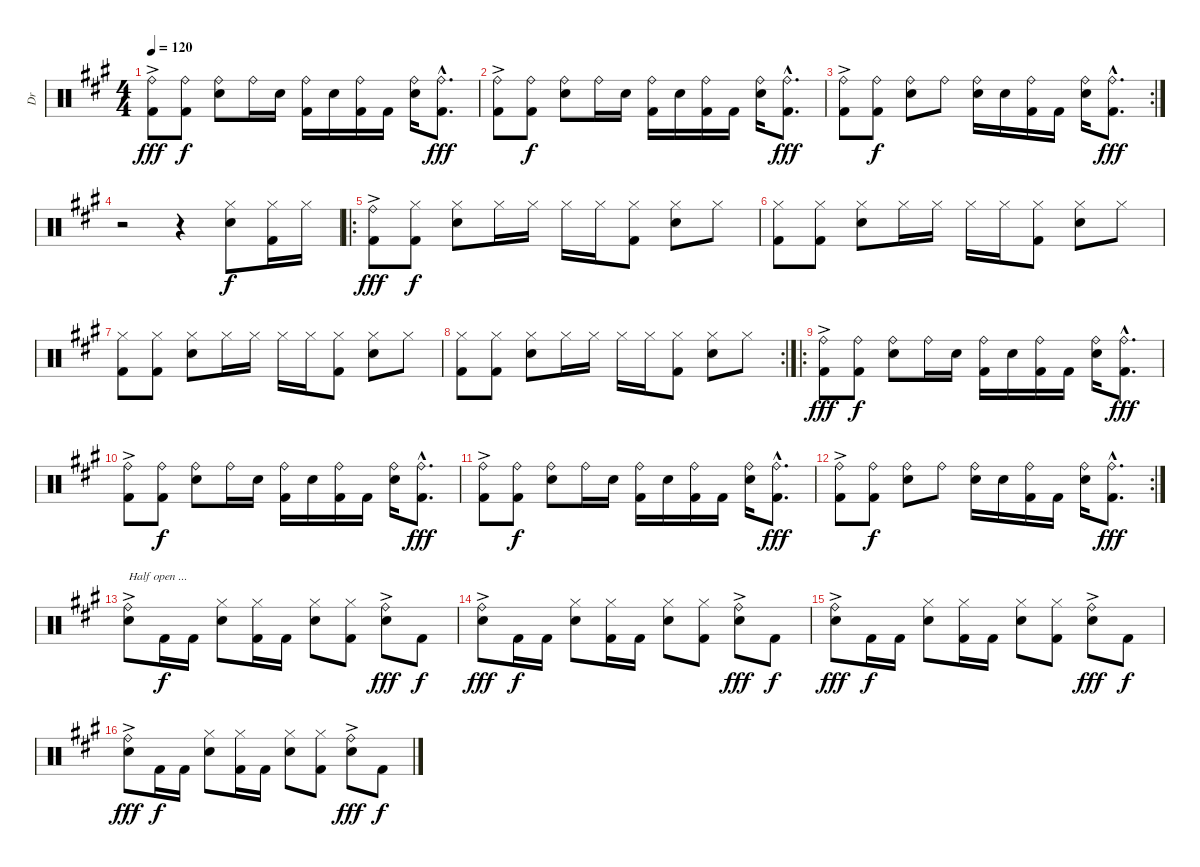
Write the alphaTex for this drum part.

\track ("Dr" "Dr") {instrument percussion}
\staff {score}
\articulation defaults
\ts (4 4)
\tempo 120
\clef neutral
\ks a
("Ride (bell)"{ac} "Kick (hit) 2"{ac}).8{dy fff} ("Ride (bell)" "Kick (hit) 2").8{dy f} ("Ride (bell)" "Electric Snare (hit)").8 "Ride (bell)".16 "Electric Snare (hit)".16 ("Ride (bell)" "Kick (hit) 2").16 "Electric Snare (hit)".16 ("Ride (bell)" "Kick (hit) 2").16 "Kick (hit) 2".16 ("Ride (bell)" "Electric Snare (hit)").16 ("Ride (bell)"{hac} "Kick (hit) 2"{hac}).8{d dy fff} |
("Ride (bell)"{ac} "Kick (hit) 2"{ac}).8 ("Ride (bell)" "Kick (hit) 2").8{dy f} ("Ride (bell)" "Electric Snare (hit)").8 "Ride (bell)".16 "Electric Snare (hit)".16 ("Ride (bell)" "Kick (hit) 2").16 "Electric Snare (hit)".16 ("Ride (bell)" "Kick (hit) 2").16 "Kick (hit) 2".16 ("Ride (bell)" "Electric Snare (hit)").16 ("Ride (bell)"{hac} "Kick (hit) 2"{hac}).8{d dy fff} |
\rc 2
("Ride (bell)"{ac} "Kick (hit) 2"{ac}).8 ("Ride (bell)" "Kick (hit) 2").8{dy f} ("Ride (bell)" "Electric Snare (hit)").8 "Ride (bell)".8 ("Ride (bell)" "Electric Snare (hit)").16 "Electric Snare (hit)".16 ("Ride (bell)" "Kick (hit) 2").16 "Kick (hit) 2".16 ("Ride (bell)" "Electric Snare (hit)").16 ("Ride (bell)"{hac} "Kick (hit) 2"{hac}).8{d dy fff} |
r.2 r.4 ("Hi-Hat (closed)" "Electric Snare (hit)").8{dy f} ("Hi-Hat (closed)" "Kick (hit) 2").16 "Hi-Hat (closed)".16 |
\ro
("Ride (bell)"{ac} "Kick (hit) 2"{ac}).8{dy fff} ("Hi-Hat (closed)" "Kick (hit) 2").8{dy f} ("Hi-Hat (closed)" "Electric Snare (hit)").8 "Hi-Hat (closed)".16 "Hi-Hat (closed)".16 "Hi-Hat (closed)".16 "Hi-Hat (closed)".16 ("Hi-Hat (closed)" "Kick (hit) 2").8 ("Hi-Hat (closed)" "Electric Snare (hit)").8 "Hi-Hat (closed)".8 |
("Hi-Hat (closed)" "Kick (hit) 2").8 ("Hi-Hat (closed)" "Kick (hit) 2").8 ("Hi-Hat (closed)" "Electric Snare (hit)").8 "Hi-Hat (closed)".16 "Hi-Hat (closed)".16 "Hi-Hat (closed)".16 "Hi-Hat (closed)".16 ("Hi-Hat (closed)" "Kick (hit) 2").8 ("Hi-Hat (closed)" "Electric Snare (hit)").8 "Hi-Hat (closed)".8 |
("Hi-Hat (closed)" "Kick (hit) 2").8 ("Hi-Hat (closed)" "Kick (hit) 2").8 ("Hi-Hat (closed)" "Electric Snare (hit)").8 "Hi-Hat (closed)".16 "Hi-Hat (closed)".16 "Hi-Hat (closed)".16 "Hi-Hat (closed)".16 ("Hi-Hat (closed)" "Kick (hit) 2").8 ("Hi-Hat (closed)" "Electric Snare (hit)").8 "Hi-Hat (closed)".8 |
\rc 2
("Hi-Hat (closed)" "Kick (hit) 2").8 ("Hi-Hat (closed)" "Kick (hit) 2").8 ("Hi-Hat (closed)" "Electric Snare (hit)").8 "Hi-Hat (closed)".16 "Hi-Hat (closed)".16 "Hi-Hat (closed)".16 "Hi-Hat (closed)".16 ("Hi-Hat (closed)" "Kick (hit) 2").8 ("Hi-Hat (closed)" "Electric Snare (hit)").8 "Hi-Hat (closed)".8 |
\ro
("Ride (bell)"{ac} "Kick (hit) 2"{ac}).8{dy fff} ("Ride (bell)" "Kick (hit) 2").8{dy f} ("Ride (bell)" "Electric Snare (hit)").8 "Ride (bell)".16 "Electric Snare (hit)".16 ("Ride (bell)" "Kick (hit) 2").16 "Electric Snare (hit)".16 ("Ride (bell)" "Kick (hit) 2").16 "Kick (hit) 2".16 ("Ride (bell)" "Electric Snare (hit)").16 ("Ride (bell)"{hac} "Kick (hit) 2"{hac}).8{d dy fff} |
("Ride (bell)"{ac} "Kick (hit) 2"{ac}).8 ("Ride (bell)" "Kick (hit) 2").8{dy f} ("Ride (bell)" "Electric Snare (hit)").8 "Ride (bell)".16 "Electric Snare (hit)".16 ("Ride (bell)" "Kick (hit) 2").16 "Electric Snare (hit)".16 ("Ride (bell)" "Kick (hit) 2").16 "Kick (hit) 2".16 ("Ride (bell)" "Electric Snare (hit)").16 ("Ride (bell)"{hac} "Kick (hit) 2"{hac}).8{d dy fff} |
("Ride (bell)"{ac} "Kick (hit) 2"{ac}).8 ("Ride (bell)" "Kick (hit) 2").8{dy f} ("Ride (bell)" "Electric Snare (hit)").8 "Ride (bell)".16 "Electric Snare (hit)".16 ("Ride (bell)" "Kick (hit) 2").16 "Electric Snare (hit)".16 ("Ride (bell)" "Kick (hit) 2").16 "Kick (hit) 2".16 ("Ride (bell)" "Electric Snare (hit)").16 ("Ride (bell)"{hac} "Kick (hit) 2"{hac}).8{d dy fff} |
\rc 2
("Ride (bell)"{ac} "Kick (hit) 2"{ac}).8 ("Ride (bell)" "Kick (hit) 2").8{dy f} ("Ride (bell)" "Electric Snare (hit)").8 "Ride (bell)".8 ("Ride (bell)" "Electric Snare (hit)").16 "Electric Snare (hit)".16 ("Ride (bell)" "Kick (hit) 2").16 "Kick (hit) 2".16 ("Ride (bell)" "Electric Snare (hit)").16 ("Ride (bell)"{hac} "Kick (hit) 2"{hac}).8{d dy fff} |
("Ride (bell)"{ac} "Electric Snare (hit)"{ac}).8{txt "Half open ..."} "Kick (hit) 2".16{dy f} "Kick (hit) 2".16 ("Hi-Hat (closed)" "Electric Snare (hit)").8 ("Hi-Hat (closed)" "Kick (hit) 2").16 "Kick (hit) 2".16 ("Hi-Hat (closed)" "Electric Snare (hit)").8 ("Hi-Hat (closed)" "Kick (hit) 2").8 ("Ride (bell)"{ac} "Electric Snare (hit)"{ac}).8{dy fff} "Kick (hit) 2".8{dy f} |
("Ride (bell)"{ac} "Electric Snare (hit)"{ac}).8{dy fff} "Kick (hit) 2".16{dy f} "Kick (hit) 2".16 ("Hi-Hat (closed)" "Electric Snare (hit)").8 ("Hi-Hat (closed)" "Kick (hit) 2").16 "Kick (hit) 2".16 ("Hi-Hat (closed)" "Electric Snare (hit)").8 ("Hi-Hat (closed)" "Kick (hit) 2").8 ("Ride (bell)"{ac} "Electric Snare (hit)"{ac}).8{dy fff} "Kick (hit) 2".8{dy f} |
("Ride (bell)"{ac} "Electric Snare (hit)"{ac}).8{dy fff} "Kick (hit) 2".16{dy f} "Kick (hit) 2".16 ("Hi-Hat (closed)" "Electric Snare (hit)").8 ("Hi-Hat (closed)" "Kick (hit) 2").16 "Kick (hit) 2".16 ("Hi-Hat (closed)" "Electric Snare (hit)").8 ("Hi-Hat (closed)" "Kick (hit) 2").8 ("Ride (bell)"{ac} "Electric Snare (hit)"{ac}).8{dy fff} "Kick (hit) 2".8{dy f} |
("Ride (bell)"{ac} "Electric Snare (hit)"{ac}).8{dy fff} "Kick (hit) 2".16{dy f} "Kick (hit) 2".16 ("Hi-Hat (closed)" "Electric Snare (hit)").8 ("Hi-Hat (closed)" "Kick (hit) 2").16 "Kick (hit) 2".16 ("Hi-Hat (closed)" "Electric Snare (hit)").8 ("Hi-Hat (closed)" "Kick (hit) 2").8 ("Ride (bell)"{ac} "Electric Snare (hit)"{ac}).8{dy fff} "Kick (hit) 2".8{dy f}
